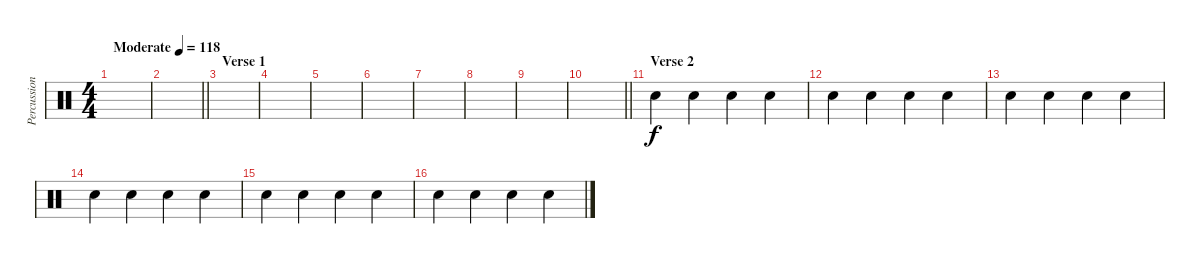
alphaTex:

\track ("Percussion" "Percussion") {instrument percussion}
\staff {score}
\articulation defaults
\ts (4 4)
\tempo (118 "Moderate")
\clef neutral
\ks c
|
\barLineRight lightlight
|
\section ("" "Verse 1")
|
|
|
|
|
|
|
\barLineRight lightlight
|
\section ("" "Verse 2")
"Hand Clap (hit)".4 "Hand Clap (hit)".4 "Hand Clap (hit)".4 "Hand Clap (hit)".4 |
"Hand Clap (hit)".4 "Hand Clap (hit)".4 "Hand Clap (hit)".4 "Hand Clap (hit)".4 |
"Hand Clap (hit)".4 "Hand Clap (hit)".4 "Hand Clap (hit)".4 "Hand Clap (hit)".4 |
"Hand Clap (hit)".4 "Hand Clap (hit)".4 "Hand Clap (hit)".4 "Hand Clap (hit)".4 |
"Hand Clap (hit)".4 "Hand Clap (hit)".4 "Hand Clap (hit)".4 "Hand Clap (hit)".4 |
"Hand Clap (hit)".4 "Hand Clap (hit)".4 "Hand Clap (hit)".4 "Hand Clap (hit)".4
